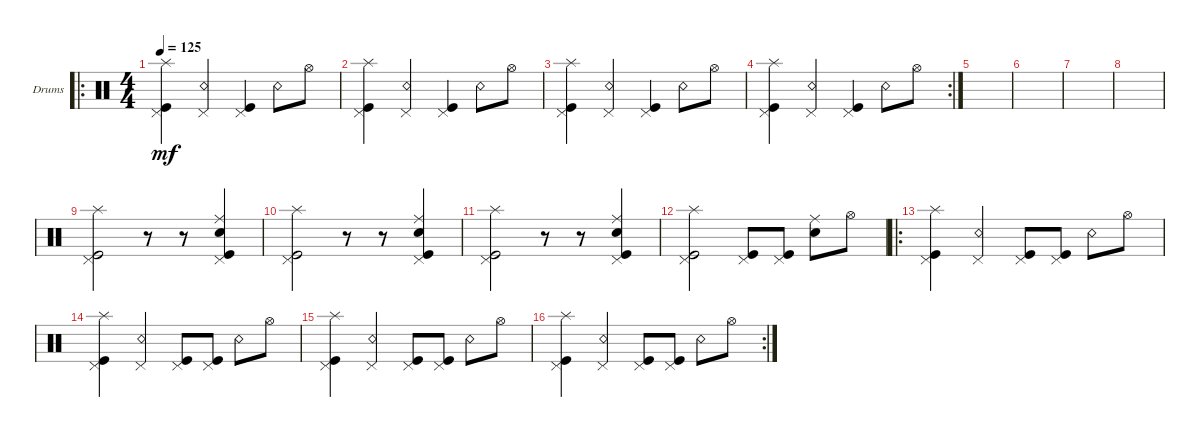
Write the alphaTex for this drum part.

\defaultSystemsLayout 4
\bracketExtendMode groupsimilarinstruments
\firstSystemTrackNameOrientation horizontal
\otherSystemsTrackNameOrientation horizontal
\track ("Drumkit" "Drums") {instrument percussion}
\staff {score}
\articulation defaults
\ro
\ts (4 4)
\tempo 125
\clef neutral
\ks c
("Splash (hit)" "Pedal Hi-Hat (hit)" "Kick (hit)").4{dy mf} ("Snare (rim shot)" "Pedal Hi-Hat (hit)").4 ("Kick (hit)" "Pedal Hi-Hat (hit)").4 "Snare (rim shot)".8 "Hi-Hat (open)".8 |
("Splash (hit)" "Pedal Hi-Hat (hit)" "Kick (hit)").4 ("Snare (rim shot)" "Pedal Hi-Hat (hit)").4 ("Kick (hit)" "Pedal Hi-Hat (hit)").4 "Snare (rim shot)".8 "Hi-Hat (open)".8 |
("Splash (hit)" "Pedal Hi-Hat (hit)" "Kick (hit)").4 ("Snare (rim shot)" "Pedal Hi-Hat (hit)").4 ("Kick (hit)" "Pedal Hi-Hat (hit)").4 "Snare (rim shot)".8 "Hi-Hat (open)".8 |
\rc 2
("Splash (hit)" "Pedal Hi-Hat (hit)" "Kick (hit)").4 ("Snare (rim shot)" "Pedal Hi-Hat (hit)").4 ("Kick (hit)" "Pedal Hi-Hat (hit)").4 "Snare (rim shot)".8 "Hi-Hat (open)".8 |
|
|
|
|
("Splash (hit)" "Pedal Hi-Hat (hit)" "Kick (hit)").2 r.8 r.8 ("Kick (hit)" "Pedal Hi-Hat (hit)" "Ride (middle)" "Snare (hit) 2").4 |
("Splash (hit)" "Pedal Hi-Hat (hit)" "Kick (hit)").2 r.8 r.8 ("Kick (hit)" "Pedal Hi-Hat (hit)" "Ride (middle)" "Snare (hit) 2").4 |
("Splash (hit)" "Pedal Hi-Hat (hit)" "Kick (hit)").2 r.8 r.8 ("Kick (hit)" "Pedal Hi-Hat (hit)" "Ride (middle)" "Snare (hit) 2").4 |
("Splash (hit)" "Pedal Hi-Hat (hit)" "Kick (hit)").2 ("Pedal Hi-Hat (hit)" "Kick (hit)").8 ("Pedal Hi-Hat (hit)" "Kick (hit)").8 ("Ride (middle)" "Snare (hit) 2").8 "Hi-Hat (open)".8 |
\ro
("Splash (hit)" "Pedal Hi-Hat (hit)" "Kick (hit)").4 ("Snare (rim shot)" "Pedal Hi-Hat (hit)").4 ("Kick (hit)" "Pedal Hi-Hat (hit)").8 ("Kick (hit)" "Pedal Hi-Hat (hit)").8 "Snare (rim shot)".8 "Hi-Hat (open)".8 |
("Splash (hit)" "Pedal Hi-Hat (hit)" "Kick (hit)").4 ("Snare (rim shot)" "Pedal Hi-Hat (hit)").4 ("Kick (hit)" "Pedal Hi-Hat (hit)").8 ("Kick (hit)" "Pedal Hi-Hat (hit)").8 "Snare (rim shot)".8 "Hi-Hat (open)".8 |
("Splash (hit)" "Pedal Hi-Hat (hit)" "Kick (hit)").4 ("Snare (rim shot)" "Pedal Hi-Hat (hit)").4 ("Kick (hit)" "Pedal Hi-Hat (hit)").8 ("Kick (hit)" "Pedal Hi-Hat (hit)").8 "Snare (rim shot)".8 "Hi-Hat (open)".8 |
\rc 2
("Splash (hit)" "Pedal Hi-Hat (hit)" "Kick (hit)").4 ("Snare (rim shot)" "Pedal Hi-Hat (hit)").4 ("Kick (hit)" "Pedal Hi-Hat (hit)").8 ("Kick (hit)" "Pedal Hi-Hat (hit)").8 "Snare (rim shot)".8 "Hi-Hat (open)".8
